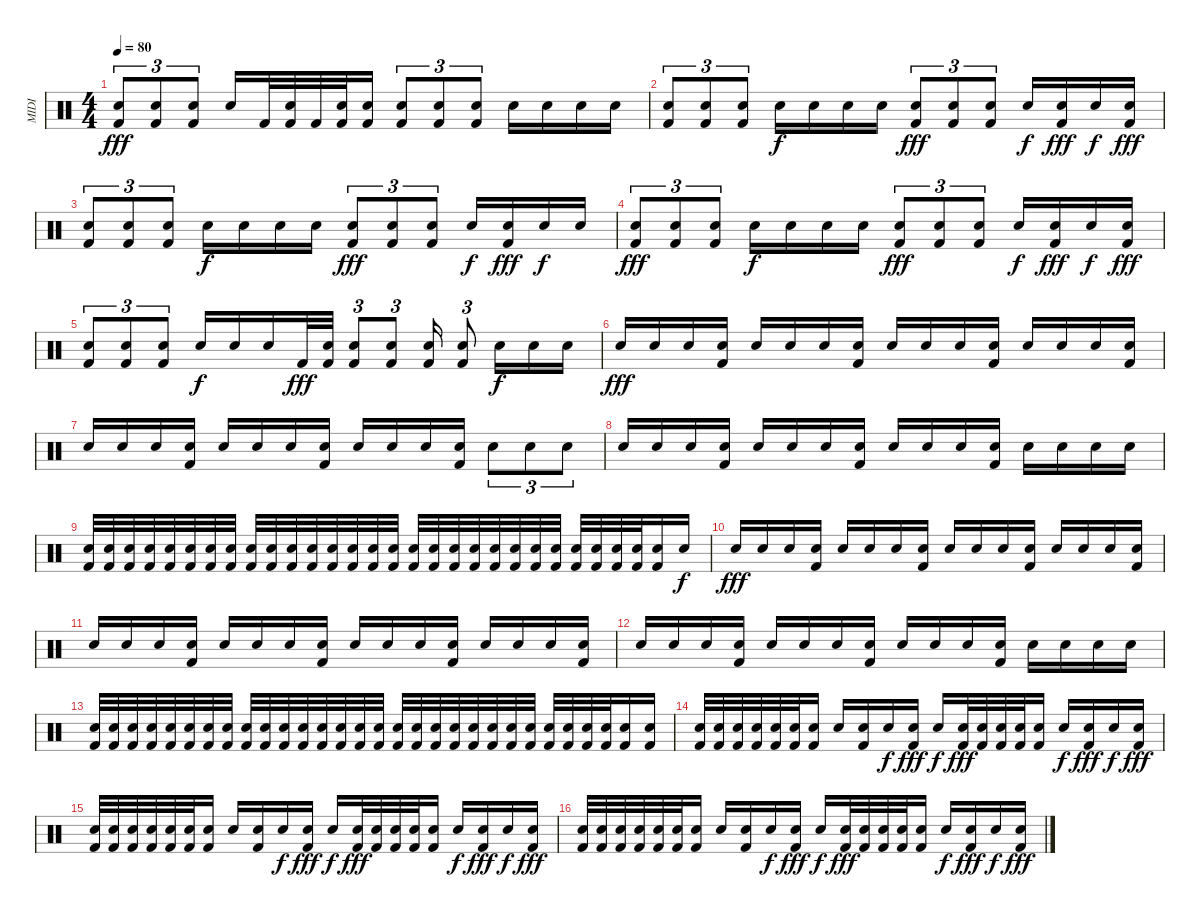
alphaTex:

\track ("MIDI" "MIDI") {instrument percussion}
\staff
\articulation defaults
\ts (4 4)
\tempo 80
\clef neutral
\ks c
("Kick (hit) 2" "Snare (hit)").8{tu (3 2) dy fff} ("Kick (hit) 2" "Snare (hit)").8{tu (3 2)} ("Kick (hit) 2" "Snare (hit)").8{tu (3 2)} "Snare (hit)".16 "Kick (hit) 2".32 ("Kick (hit) 2" "Snare (hit)").32 "Kick (hit) 2".32 ("Kick (hit) 2" "Snare (hit)").32 ("Kick (hit) 2" "Snare (hit)").16 ("Kick (hit) 2" "Snare (hit)").8{tu (3 2)} ("Kick (hit) 2" "Snare (hit)").8{tu (3 2)} ("Kick (hit) 2" "Snare (hit)").8{tu (3 2)} "Snare (hit)".16 "Snare (hit)".16 "Snare (hit)".16 "Snare (hit)".16 |
("Kick (hit) 2" "Snare (hit)").8{tu (3 2)} ("Kick (hit) 2" "Snare (hit)").8{tu (3 2)} ("Kick (hit) 2" "Snare (hit)").8{tu (3 2)} "Snare (hit)".16{dy f} "Snare (hit)".16 "Snare (hit)".16 "Snare (hit)".16 ("Kick (hit) 2" "Snare (hit)").8{tu (3 2) dy fff} ("Kick (hit) 2" "Snare (hit)").8{tu (3 2)} ("Kick (hit) 2" "Snare (hit)").8{tu (3 2)} "Snare (hit)".16{dy f} ("Kick (hit) 2" "Snare (hit)").16{dy fff} "Snare (hit)".16{dy f} ("Kick (hit) 2" "Snare (hit)").16{dy fff} |
("Kick (hit) 2" "Snare (hit)").8{tu (3 2)} ("Kick (hit) 2" "Snare (hit)").8{tu (3 2)} ("Kick (hit) 2" "Snare (hit)").8{tu (3 2)} "Snare (hit)".16{dy f} "Snare (hit)".16 "Snare (hit)".16 "Snare (hit)".16 ("Kick (hit) 2" "Snare (hit)").8{tu (3 2) dy fff} ("Kick (hit) 2" "Snare (hit)").8{tu (3 2)} ("Kick (hit) 2" "Snare (hit)").8{tu (3 2)} "Snare (hit)".16{dy f} ("Kick (hit) 2" "Snare (hit)").16{dy fff} "Snare (hit)".16{dy f} "Snare (hit)".16 |
("Kick (hit) 2" "Snare (hit)").8{tu (3 2) dy fff} ("Kick (hit) 2" "Snare (hit)").8{tu (3 2)} ("Kick (hit) 2" "Snare (hit)").8{tu (3 2)} "Snare (hit)".16{dy f} "Snare (hit)".16 "Snare (hit)".16 "Snare (hit)".16 ("Kick (hit) 2" "Snare (hit)").8{tu (3 2) dy fff} ("Kick (hit) 2" "Snare (hit)").8{tu (3 2)} ("Kick (hit) 2" "Snare (hit)").8{tu (3 2)} "Snare (hit)".16{dy f} ("Kick (hit) 2" "Snare (hit)").16{dy fff} "Snare (hit)".16{dy f} ("Kick (hit) 2" "Snare (hit)").16{dy fff} |
("Kick (hit) 2" "Snare (hit)").8{tu (3 2)} ("Kick (hit) 2" "Snare (hit)").8{tu (3 2)} ("Kick (hit) 2" "Snare (hit)").8{tu (3 2)} "Snare (hit)".16{dy f} "Snare (hit)".16 "Snare (hit)".16 "Kick (hit) 2".32{dy fff} ("Kick (hit) 2" "Snare (hit)").32 ("Kick (hit) 2" "Snare (hit)").8{tu (3 2)} ("Kick (hit) 2" "Snare (hit)").8{tu (3 2)} ("Kick (hit) 2" "Snare (hit)").16 ("Kick (hit) 2" "Snare (hit)").8{tu (3 2)} "Snare (hit)".16{dy f} "Snare (hit)".16 "Snare (hit)".16 |
"Snare (hit)".16{dy fff} "Snare (hit)".16 "Snare (hit)".16 ("Kick (hit) 2" "Snare (hit)").16 "Snare (hit)".16 "Snare (hit)".16 "Snare (hit)".16 ("Kick (hit) 2" "Snare (hit)").16 "Snare (hit)".16 "Snare (hit)".16 "Snare (hit)".16 ("Kick (hit) 2" "Snare (hit)").16 "Snare (hit)".16 "Snare (hit)".16 "Snare (hit)".16 ("Kick (hit) 2" "Snare (hit)").16 |
"Snare (hit)".16 "Snare (hit)".16 "Snare (hit)".16 ("Kick (hit) 2" "Snare (hit)").16 "Snare (hit)".16 "Snare (hit)".16 "Snare (hit)".16 ("Kick (hit) 2" "Snare (hit)").16 "Snare (hit)".16 "Snare (hit)".16 "Snare (hit)".16 ("Kick (hit) 2" "Snare (hit)").16 "Snare (hit)".8{tu (3 2)} "Snare (hit)".8{tu (3 2)} "Snare (hit)".8{tu (3 2)} |
"Snare (hit)".16 "Snare (hit)".16 "Snare (hit)".16 ("Kick (hit) 2" "Snare (hit)").16 "Snare (hit)".16 "Snare (hit)".16 "Snare (hit)".16 ("Kick (hit) 2" "Snare (hit)").16 "Snare (hit)".16 "Snare (hit)".16 "Snare (hit)".16 ("Kick (hit) 2" "Snare (hit)").16 "Snare (hit)".16 "Snare (hit)".16 "Snare (hit)".16 "Snare (hit)".16 |
("Kick (hit) 2" "Snare (hit)").32 ("Kick (hit) 2" "Snare (hit)").32 ("Kick (hit) 2" "Snare (hit)").32 ("Kick (hit) 2" "Snare (hit)").32 ("Kick (hit) 2" "Snare (hit)").32 ("Kick (hit) 2" "Snare (hit)").32 ("Kick (hit) 2" "Snare (hit)").32 ("Kick (hit) 2" "Snare (hit)").32 ("Kick (hit) 2" "Snare (hit)").32 ("Kick (hit) 2" "Snare (hit)").32 ("Kick (hit) 2" "Snare (hit)").32 ("Kick (hit) 2" "Snare (hit)").32 ("Kick (hit) 2" "Snare (hit)").32 ("Kick (hit) 2" "Snare (hit)").32 ("Kick (hit) 2" "Snare (hit)").32 ("Kick (hit) 2" "Snare (hit)").32 ("Kick (hit) 2" "Snare (hit)").32 ("Kick (hit) 2" "Snare (hit)").32 ("Kick (hit) 2" "Snare (hit)").32 ("Kick (hit) 2" "Snare (hit)").32 ("Kick (hit) 2" "Snare (hit)").32 ("Kick (hit) 2" "Snare (hit)").32 ("Kick (hit) 2" "Snare (hit)").32 ("Kick (hit) 2" "Snare (hit)").32 ("Kick (hit) 2" "Snare (hit)").32 ("Kick (hit) 2" "Snare (hit)").32 ("Kick (hit) 2" "Snare (hit)").32 ("Kick (hit) 2" "Snare (hit)").32 ("Kick (hit) 2" "Snare (hit)").16 "Snare (hit)".16{dy f} |
"Snare (hit)".16{dy fff} "Snare (hit)".16 "Snare (hit)".16 ("Kick (hit) 2" "Snare (hit)").16 "Snare (hit)".16 "Snare (hit)".16 "Snare (hit)".16 ("Kick (hit) 2" "Snare (hit)").16 "Snare (hit)".16 "Snare (hit)".16 "Snare (hit)".16 ("Kick (hit) 2" "Snare (hit)").16 "Snare (hit)".16 "Snare (hit)".16 "Snare (hit)".16 ("Kick (hit) 2" "Snare (hit)").16 |
"Snare (hit)".16 "Snare (hit)".16 "Snare (hit)".16 ("Kick (hit) 2" "Snare (hit)").16 "Snare (hit)".16 "Snare (hit)".16 "Snare (hit)".16 ("Kick (hit) 2" "Snare (hit)").16 "Snare (hit)".16 "Snare (hit)".16 "Snare (hit)".16 ("Kick (hit) 2" "Snare (hit)").16 "Snare (hit)".16 "Snare (hit)".16 "Snare (hit)".16 ("Kick (hit) 2" "Snare (hit)").16 |
"Snare (hit)".16 "Snare (hit)".16 "Snare (hit)".16 ("Kick (hit) 2" "Snare (hit)").16 "Snare (hit)".16 "Snare (hit)".16 "Snare (hit)".16 ("Kick (hit) 2" "Snare (hit)").16 "Snare (hit)".16 "Snare (hit)".16 "Snare (hit)".16 ("Kick (hit) 2" "Snare (hit)").16 "Snare (hit)".16 "Snare (hit)".16 "Snare (hit)".16 "Snare (hit)".16 |
("Kick (hit) 2" "Snare (hit)").32 ("Kick (hit) 2" "Snare (hit)").32 ("Kick (hit) 2" "Snare (hit)").32 ("Kick (hit) 2" "Snare (hit)").32 ("Kick (hit) 2" "Snare (hit)").32 ("Kick (hit) 2" "Snare (hit)").32 ("Kick (hit) 2" "Snare (hit)").32 ("Kick (hit) 2" "Snare (hit)").32 ("Kick (hit) 2" "Snare (hit)").32 ("Kick (hit) 2" "Snare (hit)").32 ("Kick (hit) 2" "Snare (hit)").32 ("Kick (hit) 2" "Snare (hit)").32 ("Kick (hit) 2" "Snare (hit)").32 ("Kick (hit) 2" "Snare (hit)").32 ("Kick (hit) 2" "Snare (hit)").32 ("Kick (hit) 2" "Snare (hit)").32 ("Kick (hit) 2" "Snare (hit)").32 ("Kick (hit) 2" "Snare (hit)").32 ("Kick (hit) 2" "Snare (hit)").32 ("Kick (hit) 2" "Snare (hit)").32 ("Kick (hit) 2" "Snare (hit)").32 ("Kick (hit) 2" "Snare (hit)").32 ("Kick (hit) 2" "Snare (hit)").32 ("Kick (hit) 2" "Snare (hit)").32 ("Kick (hit) 2" "Snare (hit)").32 ("Kick (hit) 2" "Snare (hit)").32 ("Kick (hit) 2" "Snare (hit)").32 ("Kick (hit) 2" "Snare (hit)").32 ("Kick (hit) 2" "Snare (hit)").16 ("Kick (hit) 2" "Snare (hit)").16 |
("Kick (hit) 2" "Snare (hit)").32 ("Kick (hit) 2" "Snare (hit)").32 ("Kick (hit) 2" "Snare (hit)").32 ("Kick (hit) 2" "Snare (hit)").32 ("Kick (hit) 2" "Snare (hit)").32 ("Kick (hit) 2" "Snare (hit)").32 ("Kick (hit) 2" "Snare (hit)").16 "Snare (hit)".16 ("Kick (hit) 2" "Snare (hit)").16 "Snare (hit)".16{dy f} ("Kick (hit) 2" "Snare (hit)").16{dy fff} "Snare (hit)".16{dy f} ("Kick (hit) 2" "Snare (hit)").32{dy fff} ("Kick (hit) 2" "Snare (hit)").32 ("Kick (hit) 2" "Snare (hit)").32 ("Kick (hit) 2" "Snare (hit)").32 ("Kick (hit) 2" "Snare (hit)").16 "Snare (hit)".16{dy f} ("Kick (hit) 2" "Snare (hit)").16{dy fff} "Snare (hit)".16{dy f} ("Kick (hit) 2" "Snare (hit)").16{dy fff} |
("Kick (hit) 2" "Snare (hit)").32 ("Kick (hit) 2" "Snare (hit)").32 ("Kick (hit) 2" "Snare (hit)").32 ("Kick (hit) 2" "Snare (hit)").32 ("Kick (hit) 2" "Snare (hit)").32 ("Kick (hit) 2" "Snare (hit)").32 ("Kick (hit) 2" "Snare (hit)").16 "Snare (hit)".16 ("Kick (hit) 2" "Snare (hit)").16 "Snare (hit)".16{dy f} ("Kick (hit) 2" "Snare (hit)").16{dy fff} "Snare (hit)".16{dy f} ("Kick (hit) 2" "Snare (hit)").32{dy fff} ("Kick (hit) 2" "Snare (hit)").32 ("Kick (hit) 2" "Snare (hit)").32 ("Kick (hit) 2" "Snare (hit)").32 ("Kick (hit) 2" "Snare (hit)").16 "Snare (hit)".16{dy f} ("Kick (hit) 2" "Snare (hit)").16{dy fff} "Snare (hit)".16{dy f} ("Kick (hit) 2" "Snare (hit)").16{dy fff} |
("Kick (hit) 2" "Snare (hit)").32 ("Kick (hit) 2" "Snare (hit)").32 ("Kick (hit) 2" "Snare (hit)").32 ("Kick (hit) 2" "Snare (hit)").32 ("Kick (hit) 2" "Snare (hit)").32 ("Kick (hit) 2" "Snare (hit)").32 ("Kick (hit) 2" "Snare (hit)").16 "Snare (hit)".16 ("Kick (hit) 2" "Snare (hit)").16 "Snare (hit)".16{dy f} ("Kick (hit) 2" "Snare (hit)").16{dy fff} "Snare (hit)".16{dy f} ("Kick (hit) 2" "Snare (hit)").32{dy fff} ("Kick (hit) 2" "Snare (hit)").32 ("Kick (hit) 2" "Snare (hit)").32 ("Kick (hit) 2" "Snare (hit)").32 ("Kick (hit) 2" "Snare (hit)").16 "Snare (hit)".16{dy f} ("Kick (hit) 2" "Snare (hit)").16{dy fff} "Snare (hit)".16{dy f} ("Kick (hit) 2" "Snare (hit)").16{dy fff}
